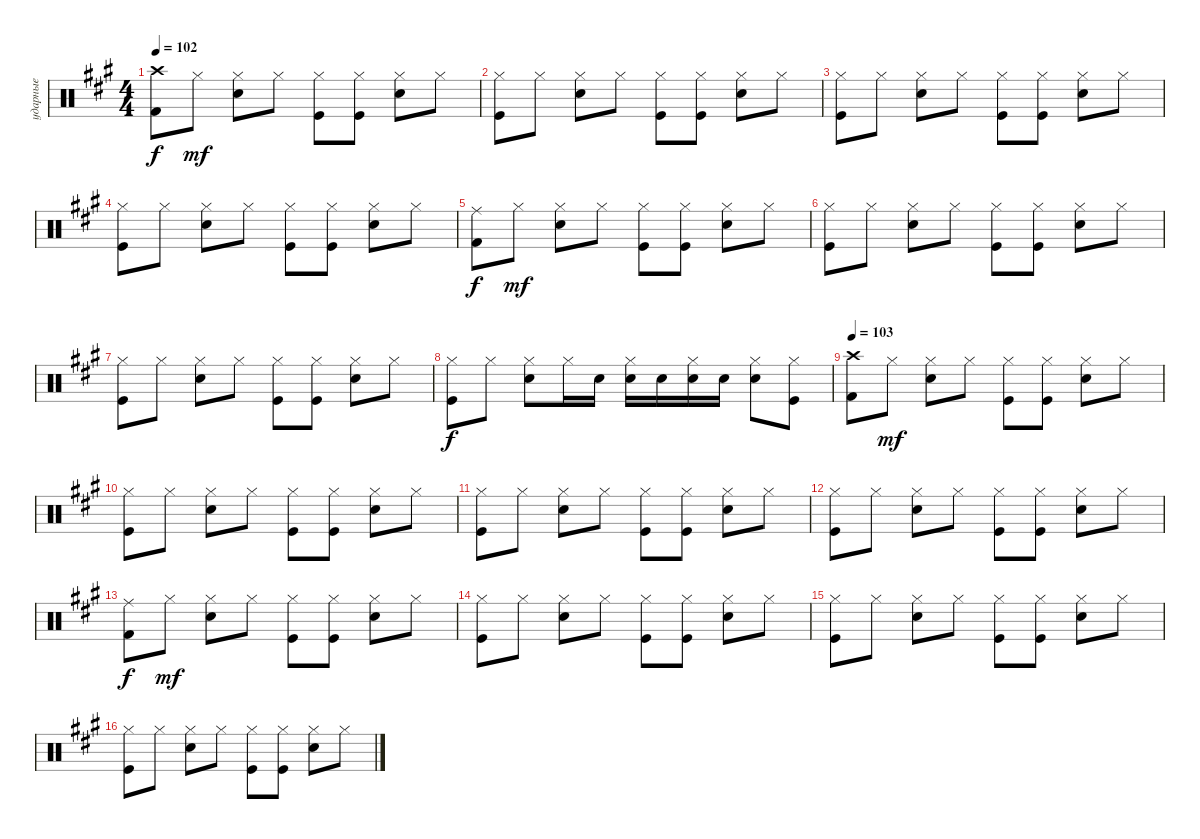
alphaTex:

\track ("ударные" "ударные") {instrument percussion}
\staff {score}
\articulation defaults
\ts (4 4)
\tempo 102
\clef neutral
\ks f#minor
("Crash high (hit)" "Kick (hit) 2").8{dy f} "Hi-Hat (closed)".8{dy mf} ("Hi-Hat (closed)" "Electric Snare (hit)").8 "Hi-Hat (closed)".8 ("Hi-Hat (closed)" "Kick (hit)").8 ("Hi-Hat (closed)" "Kick (hit)").8 ("Hi-Hat (closed)" "Electric Snare (hit)").8 "Hi-Hat (closed)".8 |
("Kick (hit)" "Hi-Hat (closed)").8 "Hi-Hat (closed)".8 ("Hi-Hat (closed)" "Electric Snare (hit)").8 "Hi-Hat (closed)".8 ("Hi-Hat (closed)" "Kick (hit)").8 ("Hi-Hat (closed)" "Kick (hit)").8 ("Hi-Hat (closed)" "Electric Snare (hit)").8 "Hi-Hat (closed)".8 |
("Kick (hit)" "Hi-Hat (closed)").8 "Hi-Hat (closed)".8 ("Hi-Hat (closed)" "Electric Snare (hit)").8 "Hi-Hat (closed)".8 ("Hi-Hat (closed)" "Kick (hit)").8 ("Hi-Hat (closed)" "Kick (hit)").8 ("Hi-Hat (closed)" "Electric Snare (hit)").8 "Hi-Hat (closed)".8 |
("Kick (hit)" "Hi-Hat (closed)").8 "Hi-Hat (closed)".8 ("Hi-Hat (closed)" "Electric Snare (hit)").8 "Hi-Hat (closed)".8 ("Hi-Hat (closed)" "Kick (hit)").8 ("Hi-Hat (closed)" "Kick (hit)").8 ("Hi-Hat (closed)" "Electric Snare (hit)").8 "Hi-Hat (closed)".8 |
("Ride (middle)" "Kick (hit) 2").8{dy f} "Hi-Hat (closed)".8{dy mf} ("Hi-Hat (closed)" "Electric Snare (hit)").8 "Hi-Hat (closed)".8 ("Hi-Hat (closed)" "Kick (hit)").8 ("Hi-Hat (closed)" "Kick (hit)").8 ("Hi-Hat (closed)" "Electric Snare (hit)").8 "Hi-Hat (closed)".8 |
("Kick (hit)" "Hi-Hat (closed)").8 "Hi-Hat (closed)".8 ("Hi-Hat (closed)" "Electric Snare (hit)").8 "Hi-Hat (closed)".8 ("Hi-Hat (closed)" "Kick (hit)").8 ("Hi-Hat (closed)" "Kick (hit)").8 ("Hi-Hat (closed)" "Electric Snare (hit)").8 "Hi-Hat (closed)".8 |
("Kick (hit)" "Hi-Hat (closed)").8 "Hi-Hat (closed)".8 ("Hi-Hat (closed)" "Electric Snare (hit)").8 "Hi-Hat (closed)".8 ("Hi-Hat (closed)" "Kick (hit)").8 ("Hi-Hat (closed)" "Kick (hit)").8 ("Hi-Hat (closed)" "Electric Snare (hit)").8 "Hi-Hat (closed)".8 |
("Kick (hit)" "Hi-Hat (closed)").8{dy f} "Hi-Hat (closed)".8 ("Hi-Hat (closed)" "Electric Snare (hit)").8 "Hi-Hat (closed)".16 "Snare (hit) 2".16 ("Snare (hit) 2" "Hi-Hat (closed)").16 "Snare (hit) 2".16 ("Snare (hit) 2" "Hi-Hat (closed)").16 "Snare (hit) 2".16 ("Snare (hit) 2" "Hi-Hat (closed)").8 ("Hi-Hat (closed)" "Kick (hit)").8 |
\tempo 103
("Crash high (hit)" "Kick (hit) 2").8 "Hi-Hat (closed)".8{dy mf} ("Hi-Hat (closed)" "Electric Snare (hit)").8 "Hi-Hat (closed)".8 ("Hi-Hat (closed)" "Kick (hit)").8 ("Hi-Hat (closed)" "Kick (hit)").8 ("Hi-Hat (closed)" "Electric Snare (hit)").8 "Hi-Hat (closed)".8 |
("Kick (hit)" "Hi-Hat (closed)").8 "Hi-Hat (closed)".8 ("Hi-Hat (closed)" "Electric Snare (hit)").8 "Hi-Hat (closed)".8 ("Hi-Hat (closed)" "Kick (hit)").8 ("Hi-Hat (closed)" "Kick (hit)").8 ("Hi-Hat (closed)" "Electric Snare (hit)").8 "Hi-Hat (closed)".8 |
("Kick (hit)" "Hi-Hat (closed)").8 "Hi-Hat (closed)".8 ("Hi-Hat (closed)" "Electric Snare (hit)").8 "Hi-Hat (closed)".8 ("Hi-Hat (closed)" "Kick (hit)").8 ("Hi-Hat (closed)" "Kick (hit)").8 ("Hi-Hat (closed)" "Electric Snare (hit)").8 "Hi-Hat (closed)".8 |
("Kick (hit)" "Hi-Hat (closed)").8 "Hi-Hat (closed)".8 ("Hi-Hat (closed)" "Electric Snare (hit)").8 "Hi-Hat (closed)".8 ("Hi-Hat (closed)" "Kick (hit)").8 ("Hi-Hat (closed)" "Kick (hit)").8 ("Hi-Hat (closed)" "Electric Snare (hit)").8 "Hi-Hat (closed)".8 |
("Ride (middle)" "Kick (hit) 2").8{dy f} "Hi-Hat (closed)".8{dy mf} ("Hi-Hat (closed)" "Electric Snare (hit)").8 "Hi-Hat (closed)".8 ("Hi-Hat (closed)" "Kick (hit)").8 ("Hi-Hat (closed)" "Kick (hit)").8 ("Hi-Hat (closed)" "Electric Snare (hit)").8 "Hi-Hat (closed)".8 |
("Kick (hit)" "Hi-Hat (closed)").8 "Hi-Hat (closed)".8 ("Hi-Hat (closed)" "Electric Snare (hit)").8 "Hi-Hat (closed)".8 ("Hi-Hat (closed)" "Kick (hit)").8 ("Hi-Hat (closed)" "Kick (hit)").8 ("Hi-Hat (closed)" "Electric Snare (hit)").8 "Hi-Hat (closed)".8 |
("Kick (hit)" "Hi-Hat (closed)").8 "Hi-Hat (closed)".8 ("Hi-Hat (closed)" "Electric Snare (hit)").8 "Hi-Hat (closed)".8 ("Hi-Hat (closed)" "Kick (hit)").8 ("Hi-Hat (closed)" "Kick (hit)").8 ("Hi-Hat (closed)" "Electric Snare (hit)").8 "Hi-Hat (closed)".8 |
("Kick (hit)" "Hi-Hat (closed)").8 "Hi-Hat (closed)".8 ("Hi-Hat (closed)" "Electric Snare (hit)").8 "Hi-Hat (closed)".8 ("Hi-Hat (closed)" "Kick (hit)").8 ("Hi-Hat (closed)" "Kick (hit)").8 ("Hi-Hat (closed)" "Electric Snare (hit)").8 "Hi-Hat (closed)".8
